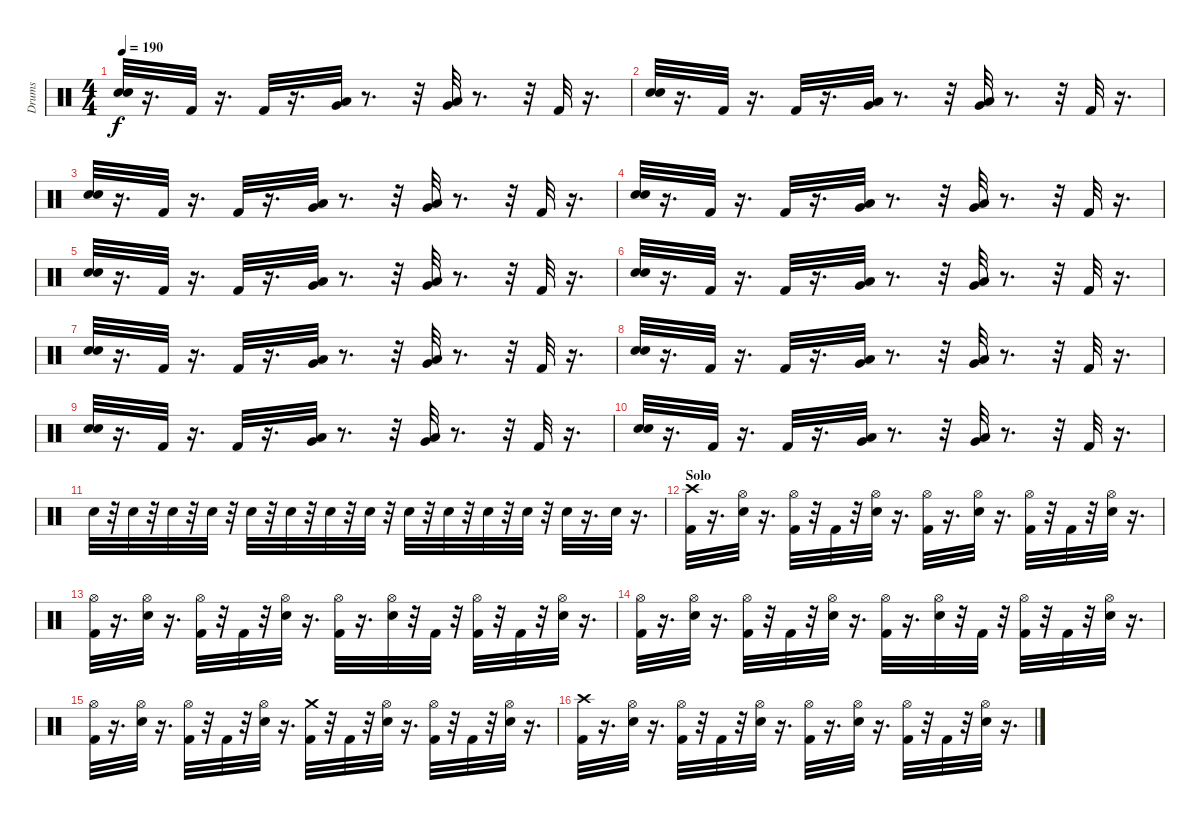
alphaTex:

\track ("Drums" "Drums") {instrument percussion}
\staff {score}
\articulation defaults
\ts (4 4)
\tempo 190
\clef neutral
\ks c
("Snare (hit) 2" "Electric Snare (hit)").32{dy f} r.16{d} "Kick (hit) 2".32 r.16{d} "Kick (hit) 2".32 r.16{d} ("Very Low Tom (hit)" "Low Tom (hit)").32 r.8{d} r.32 ("Very Low Tom (hit)" "Low Floor Tom (hit)").32 r.8{d} r.32 "Kick (hit) 2".32 r.16{d} |
("Snare (hit) 2" "Electric Snare (hit)").32 r.16{d} "Kick (hit) 2".32 r.16{d} "Kick (hit) 2".32 r.16{d} ("Very Low Tom (hit)" "Low Tom (hit)").32 r.8{d} r.32 ("Low Floor Tom (hit)" "Very Low Tom (hit)").32 r.8{d} r.32 "Kick (hit) 2".32 r.16{d} |
("Snare (hit) 2" "Electric Snare (hit)").32 r.16{d} "Kick (hit) 2".32 r.16{d} "Kick (hit) 2".32 r.16{d} ("Low Tom (hit)" "Very Low Tom (hit)").32 r.8{d} r.32 ("Very Low Tom (hit)" "Low Floor Tom (hit)").32 r.8{d} r.32 "Kick (hit) 2".32 r.16{d} |
("Snare (hit) 2" "Electric Snare (hit)").32 r.16{d} "Kick (hit) 2".32 r.16{d} "Kick (hit) 2".32 r.16{d} ("Low Tom (hit)" "Very Low Tom (hit)").32 r.8{d} r.32 ("Very Low Tom (hit)" "Low Floor Tom (hit)").32 r.8{d} r.32 "Kick (hit) 2".32 r.16{d} |
("Snare (hit) 2" "Electric Snare (hit)").32 r.16{d} "Kick (hit) 2".32 r.16{d} "Kick (hit) 2".32 r.16{d} ("Very Low Tom (hit)" "Low Tom (hit)").32 r.8{d} r.32 ("Low Floor Tom (hit)" "Very Low Tom (hit)").32 r.8{d} r.32 "Kick (hit) 2".32 r.16{d} |
("Snare (hit) 2" "Electric Snare (hit)").32 r.16{d} "Kick (hit) 2".32 r.16{d} "Kick (hit) 2".32 r.16{d} ("Very Low Tom (hit)" "Low Tom (hit)").32 r.8{d} r.32 ("Very Low Tom (hit)" "Low Floor Tom (hit)").32 r.8{d} r.32 "Kick (hit) 2".32 r.16{d} |
("Snare (hit) 2" "Electric Snare (hit)").32 r.16{d} "Kick (hit) 2".32 r.16{d} "Kick (hit) 2".32 r.16{d} ("Very Low Tom (hit)" "Low Tom (hit)").32 r.8{d} r.32 ("Very Low Tom (hit)" "Low Floor Tom (hit)").32 r.8{d} r.32 "Kick (hit) 2".32 r.16{d} |
("Snare (hit) 2" "Electric Snare (hit)").32 r.16{d} "Kick (hit) 2".32 r.16{d} "Kick (hit) 2".32 r.16{d} ("Low Tom (hit)" "Very Low Tom (hit)").32 r.8{d} r.32 ("Low Floor Tom (hit)" "Very Low Tom (hit)").32 r.8{d} r.32 "Kick (hit) 2".32 r.16{d} |
("Snare (hit) 2" "Electric Snare (hit)").32 r.16{d} "Kick (hit) 2".32 r.16{d} "Kick (hit) 2".32 r.16{d} ("Low Tom (hit)" "Very Low Tom (hit)").32 r.8{d} r.32 ("Very Low Tom (hit)" "Low Floor Tom (hit)").32 r.8{d} r.32 "Kick (hit) 2".32 r.16{d} |
("Snare (hit) 2" "Electric Snare (hit)").32 r.16{d} "Kick (hit) 2".32 r.16{d} "Kick (hit) 2".32 r.16{d} ("Very Low Tom (hit)" "Low Tom (hit)").32 r.8{d} r.32 ("Low Floor Tom (hit)" "Very Low Tom (hit)").32 r.8{d} r.32 "Kick (hit) 2".32 r.16{d} |
"Snare (hit) 2".32 r.32 "Snare (hit) 2".32 r.32 "Snare (hit) 2".32 r.32 "Snare (hit) 2".32 r.32 "Snare (hit) 2".32 r.32 "Snare (hit) 2".32 r.32 "Snare (hit) 2".32 r.32 "Snare (hit) 2".32 r.32 "Snare (hit) 2".32 r.32 "Snare (hit) 2".32 r.32 "Snare (hit) 2".32 r.32 "Snare (hit) 2".32 r.32 "Snare (hit) 2".32 r.16{d} "Snare (hit) 2".32 r.16{d} |
\section ("" "Solo")
("Kick (hit) 2" "Crash high (hit)").32 r.16{d} ("Hi-Hat (open)" "Snare (hit) 2").32 r.16{d} ("Kick (hit) 2" "Hi-Hat (open)").32 r.32 "Kick (hit) 2".32 r.32 ("Hi-Hat (open)" "Snare (hit) 2").32 r.16{d} ("Hi-Hat (open)" "Kick (hit) 2").32 r.16{d} ("Snare (hit) 2" "Hi-Hat (open)").32 r.16{d} ("Kick (hit) 2" "Hi-Hat (open)").32 r.32 "Kick (hit) 2".32 r.32 ("Snare (hit) 2" "Hi-Hat (open)").32 r.16{d} |
("Hi-Hat (open)" "Kick (hit) 2").32 r.16{d} ("Hi-Hat (open)" "Snare (hit) 2").32 r.16{d} ("Hi-Hat (open)" "Kick (hit) 2").32 r.32 "Kick (hit) 2".32 r.32 ("Snare (hit) 2" "Hi-Hat (open)").32 r.16{d} ("Kick (hit) 2" "Hi-Hat (open)").32 r.16{d} ("Hi-Hat (open)" "Snare (hit) 2").32 r.32 "Kick (hit) 2".32 r.32 ("Hi-Hat (open)" "Kick (hit) 2").32 r.32 "Kick (hit) 2".32 r.32 ("Snare (hit) 2" "Hi-Hat (open)").32 r.16{d} |
("Hi-Hat (open)" "Kick (hit) 2").32 r.16{d} ("Snare (hit) 2" "Hi-Hat (open)").32 r.16{d} ("Hi-Hat (open)" "Kick (hit) 2").32 r.32 "Kick (hit) 2".32 r.32 ("Hi-Hat (open)" "Snare (hit) 2").32 r.16{d} ("Hi-Hat (open)" "Kick (hit) 2").32 r.16{d} ("Hi-Hat (open)" "Snare (hit) 2").32 r.32 "Kick (hit) 2".32 r.32 ("Kick (hit) 2" "Hi-Hat (open)").32 r.32 "Kick (hit) 2".32 r.32 ("Snare (hit) 2" "Hi-Hat (open)").32 r.16{d} |
("Kick (hit) 2" "Hi-Hat (open)").32 r.16{d} ("Hi-Hat (open)" "Snare (hit) 2").32 r.16{d} ("Kick (hit) 2" "Hi-Hat (open)").32 r.32 "Kick (hit) 2".32 r.32 ("Snare (hit) 2" "Hi-Hat (open)").32 r.16{d} ("Crash medium (hit)" "Kick (hit) 2").32 r.32 "Kick (hit) 2".32 r.32 ("Hi-Hat (open)" "Snare (hit) 2").32 r.16{d} ("Kick (hit) 2" "Hi-Hat (open)").32 r.32 "Kick (hit) 2".32 r.32 ("Hi-Hat (open)" "Snare (hit) 2").32 r.16{d} |
("Crash high (hit)" "Kick (hit) 2").32 r.16{d} ("Snare (hit) 2" "Hi-Hat (open)").32 r.16{d} ("Kick (hit) 2" "Hi-Hat (open)").32 r.32 "Kick (hit) 2".32 r.32 ("Hi-Hat (open)" "Snare (hit) 2").32 r.16{d} ("Kick (hit) 2" "Hi-Hat (open)").32 r.16{d} ("Hi-Hat (open)" "Snare (hit) 2").32 r.16{d} ("Kick (hit) 2" "Hi-Hat (open)").32 r.32 "Kick (hit) 2".32 r.32 ("Snare (hit) 2" "Hi-Hat (open)").32 r.16{d}
